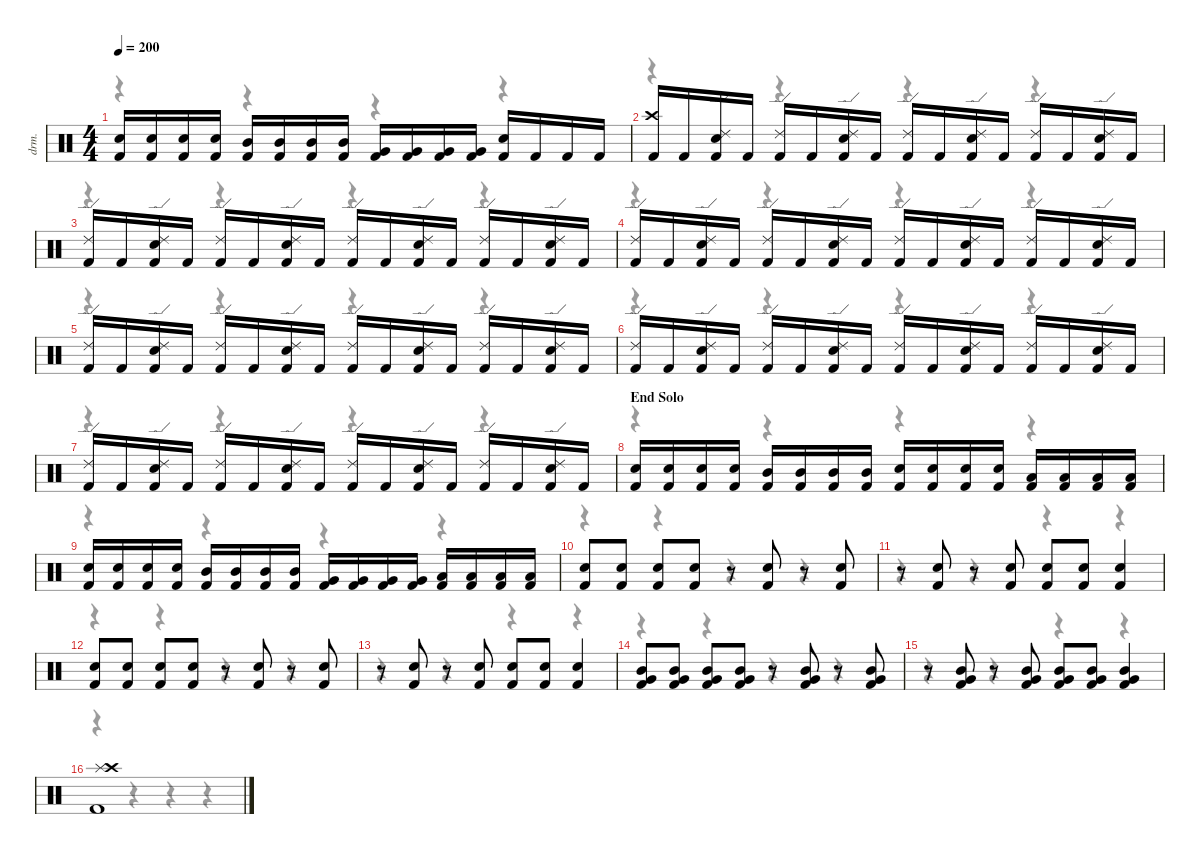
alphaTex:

\defaultSystemsLayout 4
\hideDynamics
\bracketExtendMode nobrackets
\otherSystemsTrackNameOrientation horizontal
\track ("David Mackintosh (Drums)" "drm.") {instrument percussion}
\staff {score}
\articulation defaults
\voice
\ts (4 4)
\tempo 200
\clef neutral
\ks c
("Kick (hit) 2" "Snare (hit) 2").16{dy f} ("Kick (hit) 2" "Snare (hit) 2").16 ("Kick (hit) 2" "Snare (hit) 2").16 ("Kick (hit) 2" "Snare (hit) 2").16 ("Kick (hit) 2" "Mid Tom (hit)").16 ("Kick (hit) 2" "Mid Tom (hit)").16 ("Kick (hit) 2" "Mid Tom (hit)").16 ("Kick (hit) 2" "Mid Tom (hit)").16 ("Kick (hit) 2" "Very Low Tom (hit)").16 ("Kick (hit) 2" "Very Low Tom (hit)").16 ("Kick (hit) 2" "Very Low Tom (hit)").16 ("Kick (hit) 2" "Very Low Tom (hit)").16 ("Kick (hit) 2" "Snare (hit) 2").16 "Kick (hit) 2".16 "Kick (hit) 2".16 "Kick (hit) 2".16 |
("Kick (hit) 2" "Crash high (hit)").16 "Kick (hit) 2".16 ("Kick (hit) 2" "Snare (hit) 2" "Ride (edge) 2").16 "Kick (hit) 2".16 ("Kick (hit) 2" "Ride (edge) 2").16 "Kick (hit) 2".16 ("Kick (hit) 2" "Snare (hit) 2" "Ride (edge) 2").16 "Kick (hit) 2".16 ("Kick (hit) 2" "Ride (edge) 2").16 "Kick (hit) 2".16 ("Kick (hit) 2" "Snare (hit) 2" "Ride (edge) 2").16 "Kick (hit) 2".16 ("Kick (hit) 2" "Ride (edge) 2").16 "Kick (hit) 2".16 ("Kick (hit) 2" "Snare (hit) 2" "Ride (edge) 2").16 "Kick (hit) 2".16 |
("Kick (hit) 2" "Ride (edge) 2").16 "Kick (hit) 2".16 ("Kick (hit) 2" "Snare (hit) 2" "Ride (edge) 2").16 "Kick (hit) 2".16 ("Kick (hit) 2" "Ride (edge) 2").16 "Kick (hit) 2".16 ("Kick (hit) 2" "Snare (hit) 2" "Ride (edge) 2").16 "Kick (hit) 2".16 ("Kick (hit) 2" "Ride (edge) 2").16 "Kick (hit) 2".16 ("Kick (hit) 2" "Snare (hit) 2" "Ride (edge) 2").16 "Kick (hit) 2".16 ("Kick (hit) 2" "Ride (edge) 2").16 "Kick (hit) 2".16 ("Kick (hit) 2" "Snare (hit) 2" "Ride (edge) 2").16 "Kick (hit) 2".16 |
("Kick (hit) 2" "Ride (edge) 2").16 "Kick (hit) 2".16 ("Kick (hit) 2" "Snare (hit) 2" "Ride (edge) 2").16 "Kick (hit) 2".16 ("Kick (hit) 2" "Ride (edge) 2").16 "Kick (hit) 2".16 ("Kick (hit) 2" "Snare (hit) 2" "Ride (edge) 2").16 "Kick (hit) 2".16 ("Kick (hit) 2" "Ride (edge) 2").16 "Kick (hit) 2".16 ("Kick (hit) 2" "Snare (hit) 2" "Ride (edge) 2").16 "Kick (hit) 2".16 ("Kick (hit) 2" "Ride (edge) 2").16 "Kick (hit) 2".16 ("Kick (hit) 2" "Snare (hit) 2" "Ride (edge) 2").16 "Kick (hit) 2".16 |
("Kick (hit) 2" "Ride (edge) 2").16 "Kick (hit) 2".16 ("Kick (hit) 2" "Snare (hit) 2" "Ride (edge) 2").16 "Kick (hit) 2".16 ("Kick (hit) 2" "Ride (edge) 2").16 "Kick (hit) 2".16 ("Kick (hit) 2" "Snare (hit) 2" "Ride (edge) 2").16 "Kick (hit) 2".16 ("Kick (hit) 2" "Ride (edge) 2").16 "Kick (hit) 2".16 ("Kick (hit) 2" "Snare (hit) 2" "Ride (edge) 2").16 "Kick (hit) 2".16 ("Kick (hit) 2" "Ride (edge) 2").16 "Kick (hit) 2".16 ("Kick (hit) 2" "Snare (hit) 2" "Ride (edge) 2").16 "Kick (hit) 2".16 |
("Kick (hit) 2" "Ride (edge) 2").16 "Kick (hit) 2".16 ("Kick (hit) 2" "Snare (hit) 2" "Ride (edge) 2").16 "Kick (hit) 2".16 ("Kick (hit) 2" "Ride (edge) 2").16 "Kick (hit) 2".16 ("Kick (hit) 2" "Snare (hit) 2" "Ride (edge) 2").16 "Kick (hit) 2".16 ("Kick (hit) 2" "Ride (edge) 2").16 "Kick (hit) 2".16 ("Kick (hit) 2" "Snare (hit) 2" "Ride (edge) 2").16 "Kick (hit) 2".16 ("Kick (hit) 2" "Ride (edge) 2").16 "Kick (hit) 2".16 ("Kick (hit) 2" "Snare (hit) 2" "Ride (edge) 2").16 "Kick (hit) 2".16 |
("Kick (hit) 2" "Ride (edge) 2").16 "Kick (hit) 2".16 ("Kick (hit) 2" "Snare (hit) 2" "Ride (edge) 2").16 "Kick (hit) 2".16 ("Kick (hit) 2" "Ride (edge) 2").16 "Kick (hit) 2".16 ("Kick (hit) 2" "Snare (hit) 2" "Ride (edge) 2").16 "Kick (hit) 2".16 ("Kick (hit) 2" "Ride (edge) 2").16 "Kick (hit) 2".16 ("Kick (hit) 2" "Snare (hit) 2" "Ride (edge) 2").16 "Kick (hit) 2".16 ("Kick (hit) 2" "Ride (edge) 2").16 "Kick (hit) 2".16 ("Kick (hit) 2" "Snare (hit) 2" "Ride (edge) 2").16 "Kick (hit) 2".16 |
\section ("" "End Solo")
("Kick (hit) 2" "Snare (hit) 2").16 ("Kick (hit) 2" "Snare (hit) 2").16 ("Kick (hit) 2" "Snare (hit) 2").16 ("Kick (hit) 2" "Snare (hit) 2").16 ("Kick (hit) 2" "Mid Tom (hit)").16 ("Kick (hit) 2" "Mid Tom (hit)").16 ("Kick (hit) 2" "Mid Tom (hit)").16 ("Kick (hit) 2" "Mid Tom (hit)").16 ("Kick (hit) 2" "Snare (hit) 2").16 ("Kick (hit) 2" "Snare (hit) 2").16 ("Kick (hit) 2" "Snare (hit) 2").16 ("Kick (hit) 2" "Snare (hit) 2").16 ("Kick (hit) 2" "Low Tom (hit)").16 ("Kick (hit) 2" "Low Tom (hit)").16 ("Kick (hit) 2" "Low Tom (hit)").16 ("Kick (hit) 2" "Low Tom (hit)").16 |
("Kick (hit) 2" "Snare (hit) 2").16 ("Kick (hit) 2" "Snare (hit) 2").16 ("Kick (hit) 2" "Snare (hit) 2").16 ("Kick (hit) 2" "Snare (hit) 2").16 ("Kick (hit) 2" "Mid Tom (hit)").16 ("Kick (hit) 2" "Mid Tom (hit)").16 ("Kick (hit) 2" "Mid Tom (hit)").16 ("Kick (hit) 2" "Mid Tom (hit)").16 ("Kick (hit) 2" "Very Low Tom (hit)").16 ("Kick (hit) 2" "Very Low Tom (hit)").16 ("Kick (hit) 2" "Very Low Tom (hit)").16 ("Kick (hit) 2" "Very Low Tom (hit)").16 ("Kick (hit) 2" "Low Floor Tom (hit)").16 ("Kick (hit) 2" "Low Floor Tom (hit)").16 ("Kick (hit) 2" "Low Floor Tom (hit)").16 ("Kick (hit) 2" "Low Floor Tom (hit)").16 |
("Kick (hit) 2" "Snare (hit) 2").8 ("Kick (hit) 2" "Snare (hit) 2").8 ("Kick (hit) 2" "Snare (hit) 2").8 ("Kick (hit) 2" "Snare (hit) 2").8 r.8 ("Kick (hit) 2" "Snare (hit) 2").8 r.8 ("Kick (hit) 2" "Snare (hit) 2").8 |
r.8 ("Kick (hit) 2" "Snare (hit) 2").8 r.8 ("Kick (hit) 2" "Snare (hit) 2").8 ("Kick (hit) 2" "Snare (hit) 2").8 ("Kick (hit) 2" "Snare (hit) 2").8 ("Kick (hit) 2" "Snare (hit) 2").4 |
("Kick (hit) 2" "Snare (hit) 2").8 ("Kick (hit) 2" "Snare (hit) 2").8 ("Kick (hit) 2" "Snare (hit) 2").8 ("Kick (hit) 2" "Snare (hit) 2").8 r.8 ("Kick (hit) 2" "Snare (hit) 2").8 r.8 ("Kick (hit) 2" "Snare (hit) 2").8 |
r.8 ("Kick (hit) 2" "Snare (hit) 2").8 r.8 ("Kick (hit) 2" "Snare (hit) 2").8 ("Kick (hit) 2" "Snare (hit) 2").8 ("Kick (hit) 2" "Snare (hit) 2").8 ("Kick (hit) 2" "Snare (hit) 2").4 |
("Kick (hit) 2" "Very Low Tom (hit)" "Mid Tom (hit)").8 ("Kick (hit) 2" "Very Low Tom (hit)" "Mid Tom (hit)").8 ("Kick (hit) 2" "Very Low Tom (hit)" "Mid Tom (hit)").8 ("Kick (hit) 2" "Very Low Tom (hit)" "Mid Tom (hit)").8 r.8 ("Kick (hit) 2" "Very Low Tom (hit)" "Mid Tom (hit)").8 r.8 ("Kick (hit) 2" "Very Low Tom (hit)" "Mid Tom (hit)").8 |
r.8 ("Kick (hit) 2" "Very Low Tom (hit)" "Mid Tom (hit)").8 r.8 ("Kick (hit) 2" "Very Low Tom (hit)" "Mid Tom (hit)").8 ("Kick (hit) 2" "Very Low Tom (hit)" "Mid Tom (hit)").8 ("Kick (hit) 2" "Very Low Tom (hit)" "Mid Tom (hit)").8 ("Kick (hit) 2" "Very Low Tom (hit)" "Mid Tom (hit)").4 |
("Kick (hit) 2" "Splash (hit)" "Crash high (hit)").1
\voice
\clef neutral
\ottava regular
\simile none
\ks c
r.4{dy mf} r.4 r.4 r.4 |
r.4 r.4 r.4 r.4 |
r.4 r.4 r.4 r.4 |
r.4 r.4 r.4 r.4 |
r.4 r.4 r.4 r.4 |
r.4 r.4 r.4 r.4 |
r.4 r.4 r.4 r.4 |
r.4 r.4 r.4 r.4 |
r.4 r.4 r.4 r.4 |
r.4 r.4 r.4 r.4 |
r.4 r.4 r.4 r.4 |
r.4 r.4 r.4 r.4 |
r.4 r.4 r.4 r.4 |
r.4 r.4 r.4 r.4 |
r.4 r.4 r.4 r.4 |
r.4 r.4 r.4 r.4
